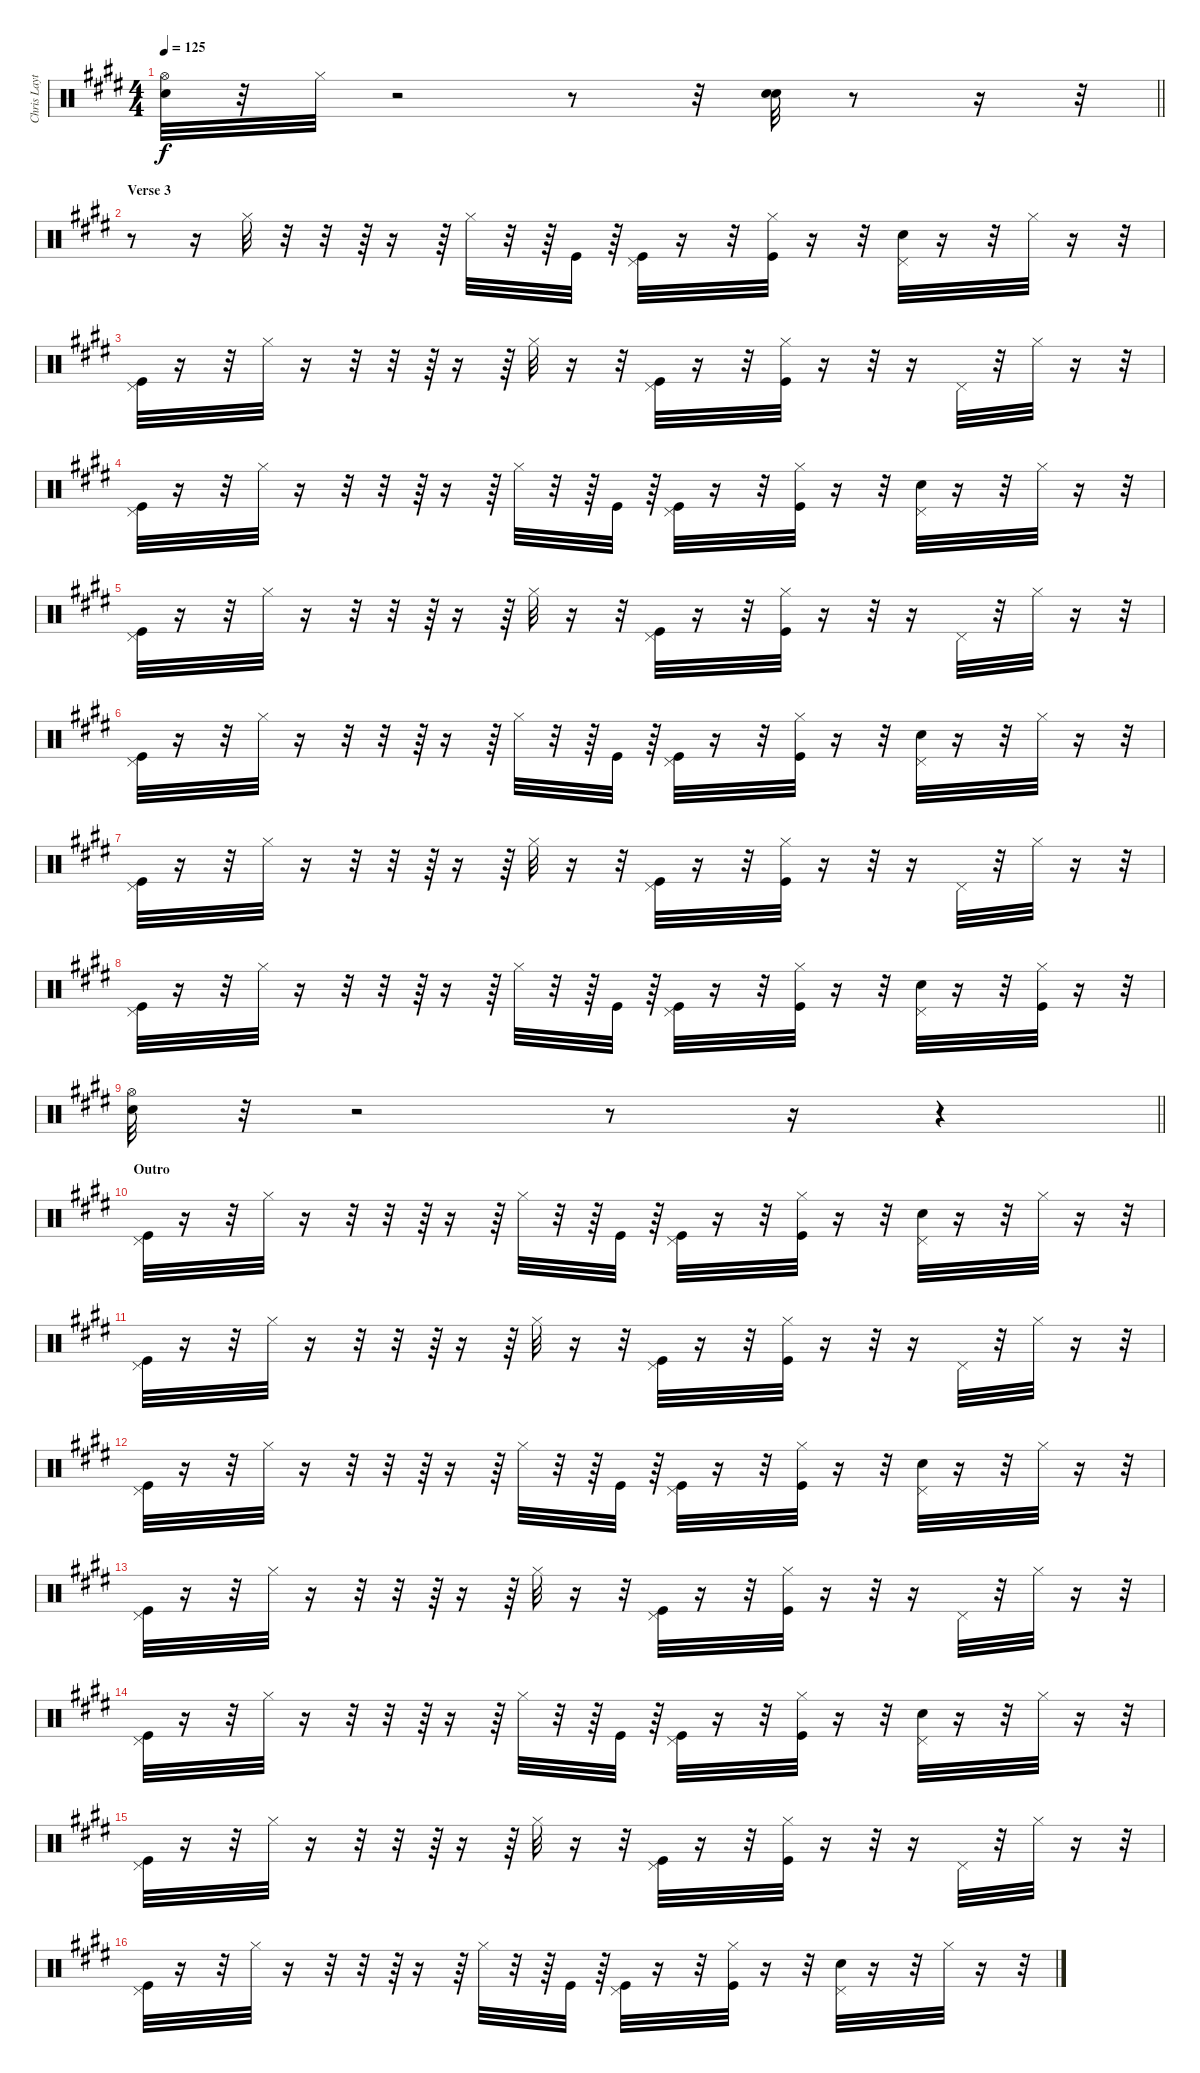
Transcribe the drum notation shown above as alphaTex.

\track ("Chris Layton" "Chris Layt") {instrument percussion}
\staff {score}
\articulation defaults
\ts (4 4)
\tempo 125
\clef neutral
\barLineRight lightlight
\ks e
("Hi-Hat (open)" "Snare (hit) 2").32{dy f} r.32 "Hi-Hat (closed)".32 r.2 r.8 r.32 ("Metronome (bell)" "Snare (hit) 2").32 r.8 r.16 r.32 |
\section ("" "Verse 3")
r.8 r.16 "Hi-Hat (closed)".32 r.32 r.32 r.64 r.16 r.64 "Hi-Hat (closed)".32 r.32 r.64 "Kick (hit)".32 r.64 ("Kick (hit)" "Pedal Hi-Hat (hit)").32 r.16 r.32 ("Kick (hit)" "Hi-Hat (closed)").32 r.16 r.32 ("Snare (hit) 2" "Pedal Hi-Hat (hit)").32 r.16 r.32 "Hi-Hat (closed)".32 r.16 r.32 |
("Pedal Hi-Hat (hit)" "Kick (hit)").32 r.16 r.32 "Hi-Hat (closed)".32 r.16 r.32 r.32 r.64 r.16 r.64 "Hi-Hat (closed)".32 r.16 r.32 ("Kick (hit)" "Pedal Hi-Hat (hit)").32 r.16 r.32 ("Kick (hit)" "Hi-Hat (closed)").32 r.16 r.32 r.16 "Pedal Hi-Hat (hit)".32 r.32 "Hi-Hat (closed)".32 r.16 r.32 |
("Pedal Hi-Hat (hit)" "Kick (hit)").32 r.16 r.32 "Hi-Hat (closed)".32 r.16 r.32 r.32 r.64 r.16 r.64 "Hi-Hat (closed)".32 r.32 r.64 "Kick (hit)".32 r.64 ("Kick (hit)" "Pedal Hi-Hat (hit)").32 r.16 r.32 ("Kick (hit)" "Hi-Hat (closed)").32 r.16 r.32 ("Snare (hit) 2" "Pedal Hi-Hat (hit)").32 r.16 r.32 "Hi-Hat (closed)".32 r.16 r.32 |
("Pedal Hi-Hat (hit)" "Kick (hit)").32 r.16 r.32 "Hi-Hat (closed)".32 r.16 r.32 r.32 r.64 r.16 r.64 "Hi-Hat (closed)".32 r.16 r.32 ("Kick (hit)" "Pedal Hi-Hat (hit)").32 r.16 r.32 ("Kick (hit)" "Hi-Hat (closed)").32 r.16 r.32 r.16 "Pedal Hi-Hat (hit)".32 r.32 "Hi-Hat (closed)".32 r.16 r.32 |
("Pedal Hi-Hat (hit)" "Kick (hit)").32 r.16 r.32 "Hi-Hat (closed)".32 r.16 r.32 r.32 r.64 r.16 r.64 "Hi-Hat (closed)".32 r.32 r.64 "Kick (hit)".32 r.64 ("Kick (hit)" "Pedal Hi-Hat (hit)").32 r.16 r.32 ("Kick (hit)" "Hi-Hat (closed)").32 r.16 r.32 ("Snare (hit) 2" "Pedal Hi-Hat (hit)").32 r.16 r.32 "Hi-Hat (closed)".32 r.16 r.32 |
("Pedal Hi-Hat (hit)" "Kick (hit)").32 r.16 r.32 "Hi-Hat (closed)".32 r.16 r.32 r.32 r.64 r.16 r.64 "Hi-Hat (closed)".32 r.16 r.32 ("Kick (hit)" "Pedal Hi-Hat (hit)").32 r.16 r.32 ("Kick (hit)" "Hi-Hat (closed)").32 r.16 r.32 r.16 "Pedal Hi-Hat (hit)".32 r.32 "Hi-Hat (closed)".32 r.16 r.32 |
("Pedal Hi-Hat (hit)" "Kick (hit)").32 r.16 r.32 "Hi-Hat (closed)".32 r.16 r.32 r.32 r.64 r.16 r.64 "Hi-Hat (closed)".32 r.32 r.64 "Kick (hit)".32 r.64 ("Kick (hit)" "Pedal Hi-Hat (hit)").32 r.16 r.32 ("Kick (hit)" "Hi-Hat (closed)").32 r.16 r.32 ("Snare (hit) 2" "Pedal Hi-Hat (hit)").32 r.16 r.32 ("Kick (hit)" "Hi-Hat (closed)").32 r.16 r.32 |
\barLineRight lightlight
("Hi-Hat (open)" "Snare (hit) 2").32 r.32 r.2 r.8 r.16 r.4 |
\section ("" "Outro")
("Pedal Hi-Hat (hit)" "Kick (hit)").32 r.16 r.32 "Hi-Hat (closed)".32 r.16 r.32 r.32 r.64 r.16 r.64 "Hi-Hat (closed)".32 r.32 r.64 "Kick (hit)".32 r.64 ("Kick (hit)" "Pedal Hi-Hat (hit)").32 r.16 r.32 ("Kick (hit)" "Hi-Hat (closed)").32 r.16 r.32 ("Snare (hit) 2" "Pedal Hi-Hat (hit)").32 r.16 r.32 "Hi-Hat (closed)".32 r.16 r.32 |
("Pedal Hi-Hat (hit)" "Kick (hit)").32 r.16 r.32 "Hi-Hat (closed)".32 r.16 r.32 r.32 r.64 r.16 r.64 "Hi-Hat (closed)".32 r.16 r.32 ("Kick (hit)" "Pedal Hi-Hat (hit)").32 r.16 r.32 ("Kick (hit)" "Hi-Hat (closed)").32 r.16 r.32 r.16 "Pedal Hi-Hat (hit)".32 r.32 "Hi-Hat (closed)".32 r.16 r.32 |
("Pedal Hi-Hat (hit)" "Kick (hit)").32 r.16 r.32 "Hi-Hat (closed)".32 r.16 r.32 r.32 r.64 r.16 r.64 "Hi-Hat (closed)".32 r.32 r.64 "Kick (hit)".32 r.64 ("Kick (hit)" "Pedal Hi-Hat (hit)").32 r.16 r.32 ("Kick (hit)" "Hi-Hat (closed)").32 r.16 r.32 ("Snare (hit) 2" "Pedal Hi-Hat (hit)").32 r.16 r.32 "Hi-Hat (closed)".32 r.16 r.32 |
("Pedal Hi-Hat (hit)" "Kick (hit)").32 r.16 r.32 "Hi-Hat (closed)".32 r.16 r.32 r.32 r.64 r.16 r.64 "Hi-Hat (closed)".32 r.16 r.32 ("Kick (hit)" "Pedal Hi-Hat (hit)").32 r.16 r.32 ("Kick (hit)" "Hi-Hat (closed)").32 r.16 r.32 r.16 "Pedal Hi-Hat (hit)".32 r.32 "Hi-Hat (closed)".32 r.16 r.32 |
("Pedal Hi-Hat (hit)" "Kick (hit)").32 r.16 r.32 "Hi-Hat (closed)".32 r.16 r.32 r.32 r.64 r.16 r.64 "Hi-Hat (closed)".32 r.32 r.64 "Kick (hit)".32 r.64 ("Kick (hit)" "Pedal Hi-Hat (hit)").32 r.16 r.32 ("Kick (hit)" "Hi-Hat (closed)").32 r.16 r.32 ("Snare (hit) 2" "Pedal Hi-Hat (hit)").32 r.16 r.32 "Hi-Hat (closed)".32 r.16 r.32 |
("Pedal Hi-Hat (hit)" "Kick (hit)").32 r.16 r.32 "Hi-Hat (closed)".32 r.16 r.32 r.32 r.64 r.16 r.64 "Hi-Hat (closed)".32 r.16 r.32 ("Kick (hit)" "Pedal Hi-Hat (hit)").32 r.16 r.32 ("Kick (hit)" "Hi-Hat (closed)").32 r.16 r.32 r.16 "Pedal Hi-Hat (hit)".32 r.32 "Hi-Hat (closed)".32 r.16 r.32 |
("Pedal Hi-Hat (hit)" "Kick (hit)").32 r.16 r.32 "Hi-Hat (closed)".32 r.16 r.32 r.32 r.64 r.16 r.64 "Hi-Hat (closed)".32 r.32 r.64 "Kick (hit)".32 r.64 ("Kick (hit)" "Pedal Hi-Hat (hit)").32 r.16 r.32 ("Kick (hit)" "Hi-Hat (closed)").32 r.16 r.32 ("Snare (hit) 2" "Pedal Hi-Hat (hit)").32 r.16 r.32 "Hi-Hat (closed)".32 r.16 r.32
